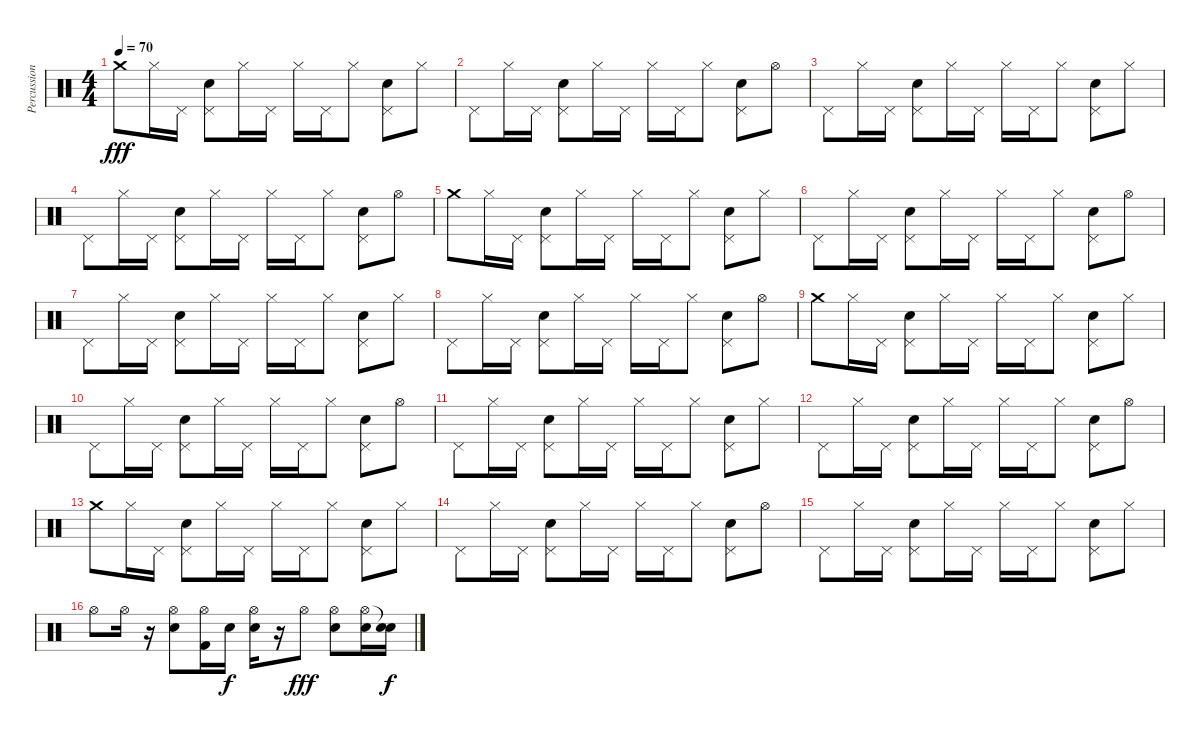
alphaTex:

\track ("Percussion" "Percussion") {instrument percussion}
\staff {score}
\articulation defaults
\ts (4 4)
\tempo 70
\clef neutral
\ks c "Crash medium (hit)".8{dy fff} "Hi-Hat (closed)".16 "Pedal Hi-Hat (hit)".16
("Pedal Hi-Hat (hit)" "Electric Snare (hit)").8 "Hi-Hat (closed)".16 "Pedal Hi-Hat (hit)".16 "Hi-Hat (closed)".16 "Pedal Hi-Hat (hit)".16 "Hi-Hat (closed)".8 ("Pedal Hi-Hat (hit)" "Electric Snare (hit)").8 "Hi-Hat (closed)".8 |
"Pedal Hi-Hat (hit)".8 "Hi-Hat (closed)".16 "Pedal Hi-Hat (hit)".16 ("Pedal Hi-Hat (hit)" "Electric Snare (hit)").8 "Hi-Hat (closed)".16 "Pedal Hi-Hat (hit)".16 "Hi-Hat (closed)".16 "Pedal Hi-Hat (hit)".16 "Hi-Hat (closed)".8 ("Pedal Hi-Hat (hit)" "Electric Snare (hit)").8 "Hi-Hat (open)".8 |
"Pedal Hi-Hat (hit)".8 "Hi-Hat (closed)".16 "Pedal Hi-Hat (hit)".16 ("Pedal Hi-Hat (hit)" "Electric Snare (hit)").8 "Hi-Hat (closed)".16 "Pedal Hi-Hat (hit)".16 "Hi-Hat (closed)".16 "Pedal Hi-Hat (hit)".16 "Hi-Hat (closed)".8 ("Pedal Hi-Hat (hit)" "Electric Snare (hit)").8 "Hi-Hat (closed)".8 |
"Pedal Hi-Hat (hit)".8 "Hi-Hat (closed)".16 "Pedal Hi-Hat (hit)".16 ("Pedal Hi-Hat (hit)" "Electric Snare (hit)").8 "Hi-Hat (closed)".16 "Pedal Hi-Hat (hit)".16 "Hi-Hat (closed)".16 "Pedal Hi-Hat (hit)".16 "Hi-Hat (closed)".8 ("Pedal Hi-Hat (hit)" "Electric Snare (hit)").8 "Hi-Hat (open)".8 |
"Crash medium (hit)".8 "Hi-Hat (closed)".16 "Pedal Hi-Hat (hit)".16 ("Pedal Hi-Hat (hit)" "Electric Snare (hit)").8 "Hi-Hat (closed)".16 "Pedal Hi-Hat (hit)".16 "Hi-Hat (closed)".16 "Pedal Hi-Hat (hit)".16 "Hi-Hat (closed)".8 ("Pedal Hi-Hat (hit)" "Electric Snare (hit)").8 "Hi-Hat (closed)".8 |
"Pedal Hi-Hat (hit)".8 "Hi-Hat (closed)".16 "Pedal Hi-Hat (hit)".16 ("Pedal Hi-Hat (hit)" "Electric Snare (hit)").8 "Hi-Hat (closed)".16 "Pedal Hi-Hat (hit)".16 "Hi-Hat (closed)".16 "Pedal Hi-Hat (hit)".16 "Hi-Hat (closed)".8 ("Pedal Hi-Hat (hit)" "Electric Snare (hit)").8 "Hi-Hat (open)".8 |
"Pedal Hi-Hat (hit)".8 "Hi-Hat (closed)".16 "Pedal Hi-Hat (hit)".16 ("Pedal Hi-Hat (hit)" "Electric Snare (hit)").8 "Hi-Hat (closed)".16 "Pedal Hi-Hat (hit)".16 "Hi-Hat (closed)".16 "Pedal Hi-Hat (hit)".16 "Hi-Hat (closed)".8 ("Pedal Hi-Hat (hit)" "Electric Snare (hit)").8 "Hi-Hat (closed)".8 |
"Pedal Hi-Hat (hit)".8 "Hi-Hat (closed)".16 "Pedal Hi-Hat (hit)".16 ("Pedal Hi-Hat (hit)" "Electric Snare (hit)").8 "Hi-Hat (closed)".16 "Pedal Hi-Hat (hit)".16 "Hi-Hat (closed)".16 "Pedal Hi-Hat (hit)".16 "Hi-Hat (closed)".8 ("Pedal Hi-Hat (hit)" "Electric Snare (hit)").8 "Hi-Hat (open)".8 |
"Crash medium (hit)".8 "Hi-Hat (closed)".16 "Pedal Hi-Hat (hit)".16 ("Pedal Hi-Hat (hit)" "Electric Snare (hit)").8 "Hi-Hat (closed)".16 "Pedal Hi-Hat (hit)".16 "Hi-Hat (closed)".16 "Pedal Hi-Hat (hit)".16 "Hi-Hat (closed)".8 ("Pedal Hi-Hat (hit)" "Electric Snare (hit)").8 "Hi-Hat (closed)".8 |
"Pedal Hi-Hat (hit)".8 "Hi-Hat (closed)".16 "Pedal Hi-Hat (hit)".16 ("Pedal Hi-Hat (hit)" "Electric Snare (hit)").8 "Hi-Hat (closed)".16 "Pedal Hi-Hat (hit)".16 "Hi-Hat (closed)".16 "Pedal Hi-Hat (hit)".16 "Hi-Hat (closed)".8 ("Pedal Hi-Hat (hit)" "Electric Snare (hit)").8 "Hi-Hat (open)".8 |
"Pedal Hi-Hat (hit)".8 "Hi-Hat (closed)".16 "Pedal Hi-Hat (hit)".16 ("Pedal Hi-Hat (hit)" "Electric Snare (hit)").8 "Hi-Hat (closed)".16 "Pedal Hi-Hat (hit)".16 "Hi-Hat (closed)".16 "Pedal Hi-Hat (hit)".16 "Hi-Hat (closed)".8 ("Pedal Hi-Hat (hit)" "Electric Snare (hit)").8 "Hi-Hat (closed)".8 |
"Pedal Hi-Hat (hit)".8 "Hi-Hat (closed)".16 "Pedal Hi-Hat (hit)".16 ("Pedal Hi-Hat (hit)" "Electric Snare (hit)").8 "Hi-Hat (closed)".16 "Pedal Hi-Hat (hit)".16 "Hi-Hat (closed)".16 "Pedal Hi-Hat (hit)".16 "Hi-Hat (closed)".8 ("Pedal Hi-Hat (hit)" "Electric Snare (hit)").8 "Hi-Hat (open)".8 |
"Crash medium (hit)".8 "Hi-Hat (closed)".16 "Pedal Hi-Hat (hit)".16 ("Pedal Hi-Hat (hit)" "Electric Snare (hit)").8 "Hi-Hat (closed)".16 "Pedal Hi-Hat (hit)".16 "Hi-Hat (closed)".16 "Pedal Hi-Hat (hit)".16 "Hi-Hat (closed)".8 ("Pedal Hi-Hat (hit)" "Electric Snare (hit)").8 "Hi-Hat (closed)".8 |
"Pedal Hi-Hat (hit)".8 "Hi-Hat (closed)".16 "Pedal Hi-Hat (hit)".16 ("Pedal Hi-Hat (hit)" "Electric Snare (hit)").8 "Hi-Hat (closed)".16 "Pedal Hi-Hat (hit)".16 "Hi-Hat (closed)".16 "Pedal Hi-Hat (hit)".16 "Hi-Hat (closed)".8 ("Pedal Hi-Hat (hit)" "Electric Snare (hit)").8 "Hi-Hat (open)".8 |
"Pedal Hi-Hat (hit)".8 "Hi-Hat (closed)".16 "Pedal Hi-Hat (hit)".16 ("Pedal Hi-Hat (hit)" "Electric Snare (hit)").8 "Hi-Hat (closed)".16 "Pedal Hi-Hat (hit)".16 "Hi-Hat (closed)".16 "Pedal Hi-Hat (hit)".16 "Hi-Hat (closed)".8 ("Pedal Hi-Hat (hit)" "Electric Snare (hit)").8 "Hi-Hat (closed)".8 |
"Hi-Hat (open)".8 "Hi-Hat (open)".16 r.16 ("Hi-Hat (open)" "Electric Snare (hit)").8 ("Hi-Hat (open)" "Kick (hit) 2").16 "Electric Snare (hit)".16{dy f} ("Hi-Hat (open)" "Electric Snare (hit)").16 r.16 "Hi-Hat (open)".8{dy fff} ("Hi-Hat (open)" "Electric Snare (hit)").8 ("Hi-Hat (open)" "Electric Snare (hit)").16 ("Snare (hit)"{t} "Electric Snare (hit)").16{dy f}
